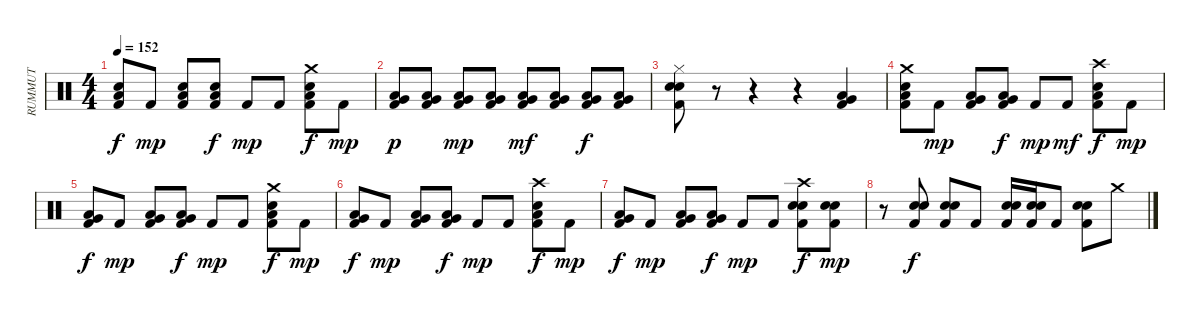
\track ("RUMMUT" "RUMMUT") {instrument percussion}
\staff {score}
\articulation defaults
\ts (4 4)
\tempo 152
\clef neutral
\ks c
("Electric Snare (hit)" "Low Tom (hit)" "Kick (hit) 2").8{dy f} "Kick (hit) 2".8{dy mp} ("Electric Snare (hit)" "Low Tom (hit)" "Kick (hit) 2").8 ("Electric Snare (hit)" "Low Tom (hit)" "Kick (hit) 2").8{dy f} "Kick (hit) 2".8{dy mp} "Kick (hit) 2".8 ("Crash medium (hit)" "Low Tom (hit)" "Electric Snare (hit)" "Kick (hit) 2").8{dy f} "Kick (hit) 2".8{dy mp} |
("Low Tom (hit)" "Very Low Tom (hit)" "Kick (hit) 2").8{dy p} ("Low Tom (hit)" "Very Low Tom (hit)" "Kick (hit) 2").8 ("Low Tom (hit)" "Very Low Tom (hit)" "Kick (hit) 2").8{dy mp} ("Low Tom (hit)" "Very Low Tom (hit)" "Kick (hit) 2").8 ("Low Tom (hit)" "Very Low Tom (hit)" "Kick (hit) 2").8{dy mf} ("Low Tom (hit)" "Very Low Tom (hit)" "Kick (hit) 2").8 ("Low Tom (hit)" "Very Low Tom (hit)" "Kick (hit) 2").8{dy f} ("Low Tom (hit)" "Very Low Tom (hit)" "Kick (hit) 2").8 |
("Hi-Hat (closed)" "Electric Snare (hit)" "Electric Snare (hit)" "Kick (hit) 2").8 r.8 r.4 r.4 ("Very Low Tom (hit)" "Low Floor Tom (hit)" "Kick (hit) 2").4 |
("Crash medium (hit)" "Electric Snare (hit)" "Low Tom (hit)" "Kick (hit) 2").8 "Kick (hit) 2".8{dy mp} ("Very Low Tom (hit)" "Low Tom (hit)" "Kick (hit) 2").8 ("Very Low Tom (hit)" "Low Tom (hit)" "Kick (hit) 2").8{dy f} "Kick (hit) 2".8{dy mp} "Kick (hit) 2".8{dy mf} ("Crash high (hit)" "Low Tom (hit)" "Electric Snare (hit)" "Kick (hit) 2").8{dy f} "Kick (hit) 2".8{dy mp} |
("Very Low Tom (hit)" "Low Tom (hit)" "Kick (hit) 2").8{dy f} "Kick (hit) 2".8{dy mp} ("Very Low Tom (hit)" "Low Tom (hit)" "Kick (hit) 2").8 ("Very Low Tom (hit)" "Low Tom (hit)" "Kick (hit) 2").8{dy f} "Kick (hit) 2".8{dy mp} "Kick (hit) 2".8 ("Crash medium (hit)" "Low Tom (hit)" "Electric Snare (hit)" "Kick (hit) 2").8{dy f} "Kick (hit) 2".8{dy mp} |
("Very Low Tom (hit)" "Low Tom (hit)" "Kick (hit) 2").8{dy f} "Kick (hit) 2".8{dy mp} ("Very Low Tom (hit)" "Low Tom (hit)" "Kick (hit) 2").8 ("Very Low Tom (hit)" "Low Tom (hit)" "Kick (hit) 2").8{dy f} "Kick (hit) 2".8{dy mp} "Kick (hit) 2".8 ("Crash high (hit)" "Low Tom (hit)" "Electric Snare (hit)" "Kick (hit) 2").8{dy f} "Kick (hit) 2".8{dy mp} |
("Very Low Tom (hit)" "Low Tom (hit)" "Kick (hit) 2").8{dy f} "Kick (hit) 2".8{dy mp} ("Very Low Tom (hit)" "Low Tom (hit)" "Kick (hit) 2").8 ("Very Low Tom (hit)" "Low Tom (hit)" "Kick (hit) 2").8{dy f} "Kick (hit) 2".8{dy mp} "Kick (hit) 2".8 ("Crash high (hit)" "Electric Snare (hit)" "Electric Snare (hit)" "Kick (hit) 2").8{dy f} ("Electric Snare (hit)" "Electric Snare (hit)" "Kick (hit) 2").8{dy mp} |
r.8 ("Electric Snare (hit)" "Electric Snare (hit)" "Kick (hit) 2").8{dy f} ("Electric Snare (hit)" "Electric Snare (hit)" "Kick (hit) 2").8 "Kick (hit) 2".8 ("Electric Snare (hit)" "Electric Snare (hit)" "Kick (hit) 2").16 ("Electric Snare (hit)" "Electric Snare (hit)" "Kick (hit) 2").16 "Kick (hit) 2".8 ("Electric Snare (hit)" "Electric Snare (hit)" "Kick (hit) 2").8 "Crash medium (hit)".8
